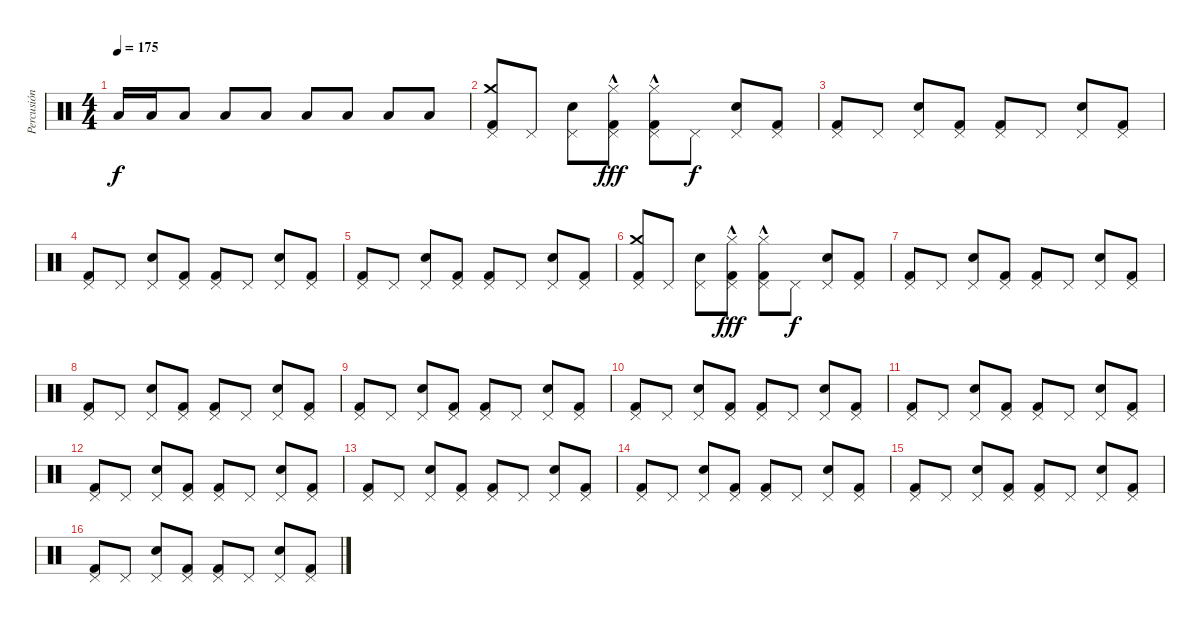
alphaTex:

\track ("Percusión" "Percusión") {instrument percussion}
\staff {score}
\articulation defaults
\ts (4 4)
\tempo 175
\clef neutral
\ks c "Low Tom (hit)".16{dy f} "Low Tom (hit)".16 "Low Tom (hit)".8 "Low Tom (hit)".8 "Low Tom (hit)".8 "Low Tom (hit)".8 "Low Tom (hit)".8 "Low Tom (hit)".8 "Low Tom (hit)".8
|
("Pedal Hi-Hat (hit)" "Crash medium (hit)" "Kick (hit) 2").8 "Pedal Hi-Hat (hit)".8 ("Pedal Hi-Hat (hit)" "Electric Snare (hit)").8 ("Pedal Hi-Hat (hit)" "Hi-Hat (closed)"{hac} "Kick (hit) 2").8{dy fff} ("Pedal Hi-Hat (hit)" "Hi-Hat (closed)"{hac} "Kick (hit) 2").8 "Pedal Hi-Hat (hit)".8{dy f} ("Pedal Hi-Hat (hit)" "Electric Snare (hit)").8 ("Pedal Hi-Hat (hit)" "Kick (hit) 2").8 |
("Pedal Hi-Hat (hit)" "Kick (hit) 2").8 "Pedal Hi-Hat (hit)".8 ("Pedal Hi-Hat (hit)" "Electric Snare (hit)").8 ("Pedal Hi-Hat (hit)" "Kick (hit) 2").8 ("Pedal Hi-Hat (hit)" "Kick (hit) 2").8 "Pedal Hi-Hat (hit)".8 ("Pedal Hi-Hat (hit)" "Electric Snare (hit)").8 ("Pedal Hi-Hat (hit)" "Kick (hit) 2").8 |
("Pedal Hi-Hat (hit)" "Kick (hit) 2").8 "Pedal Hi-Hat (hit)".8 ("Pedal Hi-Hat (hit)" "Electric Snare (hit)").8 ("Pedal Hi-Hat (hit)" "Kick (hit) 2").8 ("Pedal Hi-Hat (hit)" "Kick (hit) 2").8 "Pedal Hi-Hat (hit)".8 ("Pedal Hi-Hat (hit)" "Electric Snare (hit)").8 ("Pedal Hi-Hat (hit)" "Kick (hit) 2").8 |
("Pedal Hi-Hat (hit)" "Kick (hit) 2").8 "Pedal Hi-Hat (hit)".8 ("Pedal Hi-Hat (hit)" "Electric Snare (hit)").8 ("Pedal Hi-Hat (hit)" "Kick (hit) 2").8 ("Pedal Hi-Hat (hit)" "Kick (hit) 2").8 "Pedal Hi-Hat (hit)".8 ("Pedal Hi-Hat (hit)" "Electric Snare (hit)").8 ("Pedal Hi-Hat (hit)" "Kick (hit) 2").8 |
("Pedal Hi-Hat (hit)" "Crash medium (hit)" "Kick (hit) 2").8 "Pedal Hi-Hat (hit)".8 ("Pedal Hi-Hat (hit)" "Electric Snare (hit)").8 ("Pedal Hi-Hat (hit)" "Hi-Hat (closed)"{hac} "Kick (hit) 2").8{dy fff} ("Pedal Hi-Hat (hit)" "Hi-Hat (closed)"{hac} "Kick (hit) 2").8 "Pedal Hi-Hat (hit)".8{dy f} ("Pedal Hi-Hat (hit)" "Electric Snare (hit)").8 ("Pedal Hi-Hat (hit)" "Kick (hit) 2").8 |
("Pedal Hi-Hat (hit)" "Kick (hit) 2").8 "Pedal Hi-Hat (hit)".8 ("Pedal Hi-Hat (hit)" "Electric Snare (hit)").8 ("Pedal Hi-Hat (hit)" "Kick (hit) 2").8 ("Pedal Hi-Hat (hit)" "Kick (hit) 2").8 "Pedal Hi-Hat (hit)".8 ("Pedal Hi-Hat (hit)" "Electric Snare (hit)").8 ("Pedal Hi-Hat (hit)" "Kick (hit) 2").8 |
("Pedal Hi-Hat (hit)" "Kick (hit) 2").8 "Pedal Hi-Hat (hit)".8 ("Pedal Hi-Hat (hit)" "Electric Snare (hit)").8 ("Pedal Hi-Hat (hit)" "Kick (hit) 2").8 ("Pedal Hi-Hat (hit)" "Kick (hit) 2").8 "Pedal Hi-Hat (hit)".8 ("Pedal Hi-Hat (hit)" "Electric Snare (hit)").8 ("Pedal Hi-Hat (hit)" "Kick (hit) 2").8 |
("Pedal Hi-Hat (hit)" "Kick (hit) 2").8 "Pedal Hi-Hat (hit)".8 ("Pedal Hi-Hat (hit)" "Electric Snare (hit)").8 ("Pedal Hi-Hat (hit)" "Kick (hit) 2").8 ("Pedal Hi-Hat (hit)" "Kick (hit) 2").8 "Pedal Hi-Hat (hit)".8 ("Pedal Hi-Hat (hit)" "Electric Snare (hit)").8 ("Pedal Hi-Hat (hit)" "Kick (hit) 2").8 |
("Pedal Hi-Hat (hit)" "Kick (hit) 2").8 "Pedal Hi-Hat (hit)".8 ("Pedal Hi-Hat (hit)" "Electric Snare (hit)").8 ("Pedal Hi-Hat (hit)" "Kick (hit) 2").8 ("Pedal Hi-Hat (hit)" "Kick (hit) 2").8 "Pedal Hi-Hat (hit)".8 ("Pedal Hi-Hat (hit)" "Electric Snare (hit)").8 ("Pedal Hi-Hat (hit)" "Kick (hit) 2").8 |
("Pedal Hi-Hat (hit)" "Kick (hit) 2").8 "Pedal Hi-Hat (hit)".8 ("Pedal Hi-Hat (hit)" "Electric Snare (hit)").8 ("Pedal Hi-Hat (hit)" "Kick (hit) 2").8 ("Pedal Hi-Hat (hit)" "Kick (hit) 2").8 "Pedal Hi-Hat (hit)".8 ("Pedal Hi-Hat (hit)" "Electric Snare (hit)").8 ("Pedal Hi-Hat (hit)" "Kick (hit) 2").8 |
("Pedal Hi-Hat (hit)" "Kick (hit) 2").8 "Pedal Hi-Hat (hit)".8 ("Pedal Hi-Hat (hit)" "Electric Snare (hit)").8 ("Pedal Hi-Hat (hit)" "Kick (hit) 2").8 ("Pedal Hi-Hat (hit)" "Kick (hit) 2").8 "Pedal Hi-Hat (hit)".8 ("Pedal Hi-Hat (hit)" "Electric Snare (hit)").8 ("Pedal Hi-Hat (hit)" "Kick (hit) 2").8 |
("Pedal Hi-Hat (hit)" "Kick (hit) 2").8 "Pedal Hi-Hat (hit)".8 ("Pedal Hi-Hat (hit)" "Electric Snare (hit)").8 ("Pedal Hi-Hat (hit)" "Kick (hit) 2").8 ("Pedal Hi-Hat (hit)" "Kick (hit) 2").8 "Pedal Hi-Hat (hit)".8 ("Pedal Hi-Hat (hit)" "Electric Snare (hit)").8 ("Pedal Hi-Hat (hit)" "Kick (hit) 2").8 |
("Pedal Hi-Hat (hit)" "Kick (hit) 2").8 "Pedal Hi-Hat (hit)".8 ("Pedal Hi-Hat (hit)" "Electric Snare (hit)").8 ("Pedal Hi-Hat (hit)" "Kick (hit) 2").8 ("Pedal Hi-Hat (hit)" "Kick (hit) 2").8 "Pedal Hi-Hat (hit)".8 ("Pedal Hi-Hat (hit)" "Electric Snare (hit)").8 ("Pedal Hi-Hat (hit)" "Kick (hit) 2").8 |
("Pedal Hi-Hat (hit)" "Kick (hit) 2").8 "Pedal Hi-Hat (hit)".8 ("Pedal Hi-Hat (hit)" "Electric Snare (hit)").8 ("Pedal Hi-Hat (hit)" "Kick (hit) 2").8 ("Pedal Hi-Hat (hit)" "Kick (hit) 2").8 "Pedal Hi-Hat (hit)".8 ("Pedal Hi-Hat (hit)" "Electric Snare (hit)").8 ("Pedal Hi-Hat (hit)" "Kick (hit) 2").8 |
("Pedal Hi-Hat (hit)" "Kick (hit) 2").8 "Pedal Hi-Hat (hit)".8 ("Pedal Hi-Hat (hit)" "Electric Snare (hit)").8 ("Pedal Hi-Hat (hit)" "Kick (hit) 2").8 ("Pedal Hi-Hat (hit)" "Kick (hit) 2").8 "Pedal Hi-Hat (hit)".8 ("Pedal Hi-Hat (hit)" "Electric Snare (hit)").8 ("Pedal Hi-Hat (hit)" "Kick (hit) 2").8
